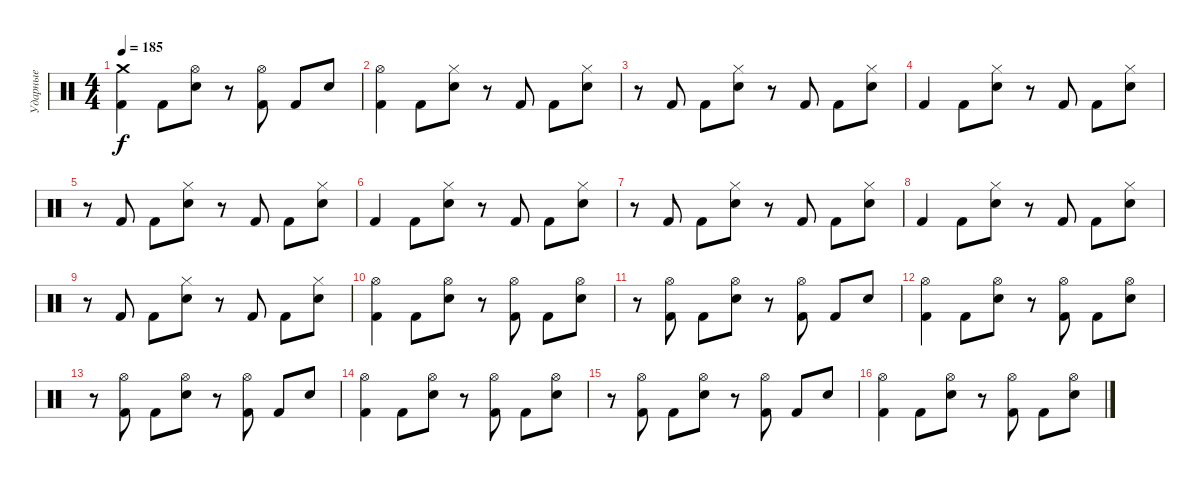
\track ("Ударные" "Ударные") {instrument percussion}
\staff {score}
\articulation defaults
\ts (4 4)
\tempo 185
\clef neutral
\ks c
("Crash medium (hit)" "Kick (hit) 2").4{dy f} "Kick (hit) 2".8 ("Hi-Hat (open)" "Electric Snare (hit)").8 r.8 ("Hi-Hat (open)" "Kick (hit) 2").8 "Kick (hit) 2".8 "Electric Snare (hit)".8 |
("Hi-Hat (open)" "Kick (hit) 2").4 "Kick (hit) 2".8 ("Hi-Hat (closed)" "Electric Snare (hit)").8 r.8 "Kick (hit) 2".8 "Kick (hit) 2".8 ("Hi-Hat (closed)" "Electric Snare (hit)").8 |
r.8 "Kick (hit) 2".8 "Kick (hit) 2".8 ("Hi-Hat (closed)" "Electric Snare (hit)").8 r.8 "Kick (hit) 2".8 "Kick (hit) 2".8 ("Hi-Hat (closed)" "Electric Snare (hit)").8 |
"Kick (hit) 2".4 "Kick (hit) 2".8 ("Hi-Hat (closed)" "Electric Snare (hit)").8 r.8 "Kick (hit) 2".8 "Kick (hit) 2".8 ("Hi-Hat (closed)" "Electric Snare (hit)").8 |
r.8 "Kick (hit) 2".8 "Kick (hit) 2".8 ("Hi-Hat (closed)" "Electric Snare (hit)").8 r.8 "Kick (hit) 2".8 "Kick (hit) 2".8 ("Hi-Hat (closed)" "Electric Snare (hit)").8 |
"Kick (hit) 2".4 "Kick (hit) 2".8 ("Hi-Hat (closed)" "Electric Snare (hit)").8 r.8 "Kick (hit) 2".8 "Kick (hit) 2".8 ("Hi-Hat (closed)" "Electric Snare (hit)").8 |
r.8 "Kick (hit) 2".8 "Kick (hit) 2".8 ("Hi-Hat (closed)" "Electric Snare (hit)").8 r.8 "Kick (hit) 2".8 "Kick (hit) 2".8 ("Hi-Hat (closed)" "Electric Snare (hit)").8 |
"Kick (hit) 2".4 "Kick (hit) 2".8 ("Hi-Hat (closed)" "Electric Snare (hit)").8 r.8 "Kick (hit) 2".8 "Kick (hit) 2".8 ("Hi-Hat (closed)" "Electric Snare (hit)").8 |
r.8 "Kick (hit) 2".8 "Kick (hit) 2".8 ("Hi-Hat (closed)" "Electric Snare (hit)").8 r.8 "Kick (hit) 2".8 "Kick (hit) 2".8 ("Hi-Hat (closed)" "Electric Snare (hit)").8 |
("Hi-Hat (open)" "Kick (hit) 2").4 "Kick (hit) 2".8 ("Hi-Hat (open)" "Electric Snare (hit)").8 r.8 ("Hi-Hat (open)" "Kick (hit) 2").8 "Kick (hit) 2".8 ("Hi-Hat (open)" "Electric Snare (hit)").8 |
r.8 ("Hi-Hat (open)" "Kick (hit) 2").8 "Kick (hit) 2".8 ("Hi-Hat (open)" "Electric Snare (hit)").8 r.8 ("Hi-Hat (open)" "Kick (hit) 2").8 "Kick (hit) 2".8 "Electric Snare (hit)".8 |
("Hi-Hat (open)" "Kick (hit) 2").4 "Kick (hit) 2".8 ("Hi-Hat (open)" "Electric Snare (hit)").8 r.8 ("Hi-Hat (open)" "Kick (hit) 2").8 "Kick (hit) 2".8 ("Hi-Hat (open)" "Electric Snare (hit)").8 |
r.8 ("Hi-Hat (open)" "Kick (hit) 2").8 "Kick (hit) 2".8 ("Hi-Hat (open)" "Electric Snare (hit)").8 r.8 ("Hi-Hat (open)" "Kick (hit) 2").8 "Kick (hit) 2".8 "Electric Snare (hit)".8 |
("Hi-Hat (open)" "Kick (hit) 2").4 "Kick (hit) 2".8 ("Hi-Hat (open)" "Electric Snare (hit)").8 r.8 ("Hi-Hat (open)" "Kick (hit) 2").8 "Kick (hit) 2".8 ("Hi-Hat (open)" "Electric Snare (hit)").8 |
r.8 ("Hi-Hat (open)" "Kick (hit) 2").8 "Kick (hit) 2".8 ("Hi-Hat (open)" "Electric Snare (hit)").8 r.8 ("Hi-Hat (open)" "Kick (hit) 2").8 "Kick (hit) 2".8 "Electric Snare (hit)".8 |
("Hi-Hat (open)" "Kick (hit) 2").4 "Kick (hit) 2".8 ("Hi-Hat (open)" "Electric Snare (hit)").8 r.8 ("Hi-Hat (open)" "Kick (hit) 2").8 "Kick (hit) 2".8 ("Hi-Hat (open)" "Electric Snare (hit)").8
